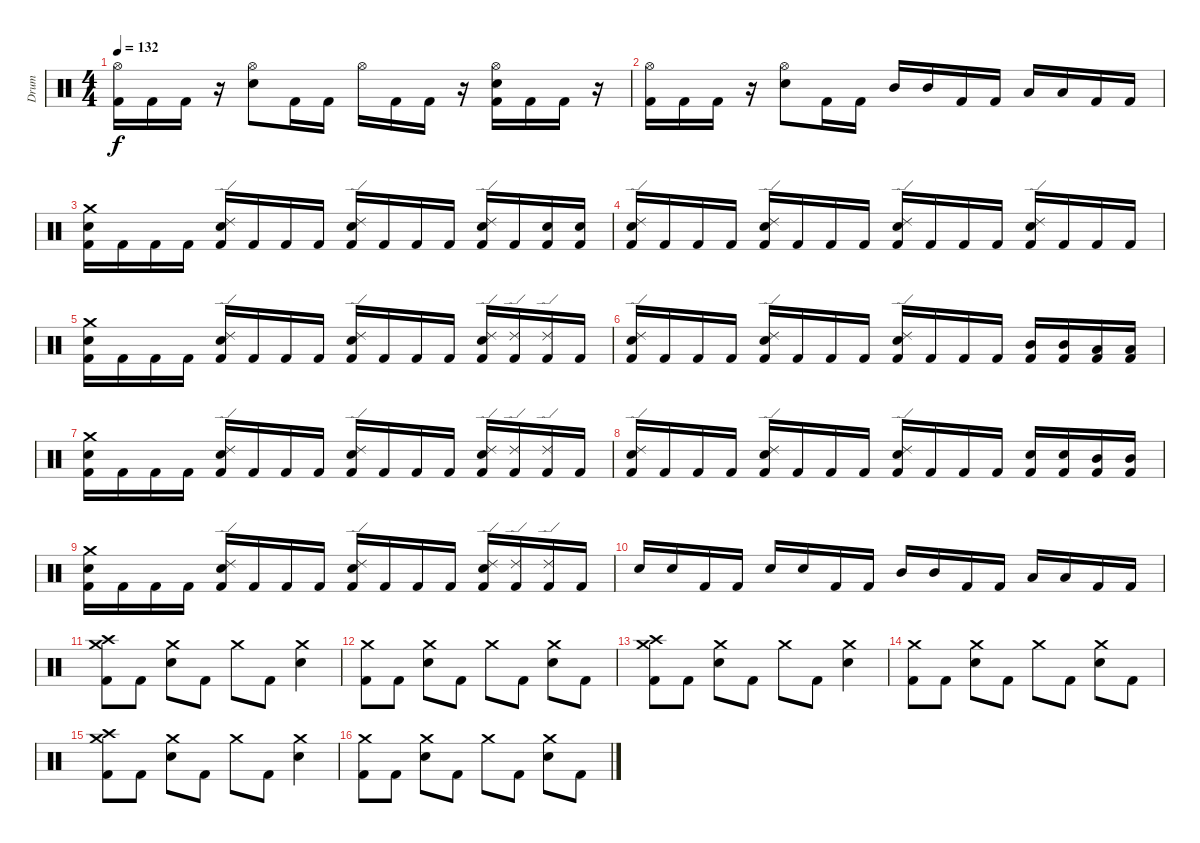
\track ("Drum" "Drum") {instrument percussion}
\staff {score}
\articulation defaults
\ts (4 4)
\tempo 132
\clef neutral
\ks c
("Hi-Hat (open)" "Kick (hit) 2").16{dy f} "Kick (hit) 2".16 "Kick (hit) 2".16 r.16 ("Hi-Hat (open)" "Snare (hit) 2").8 "Kick (hit) 2".16 "Kick (hit) 2".16 "Hi-Hat (open)".16 "Kick (hit) 2".16 "Kick (hit) 2".16 r.16 ("Hi-Hat (open)" "Snare (hit) 2" "Kick (hit) 2").16 "Kick (hit) 2".16 "Kick (hit) 2".16 r.16 |
("Hi-Hat (open)" "Kick (hit) 2").16 "Kick (hit) 2".16 "Kick (hit) 2".16 r.16 ("Hi-Hat (open)" "Snare (hit) 2").8 "Kick (hit) 2".16 "Kick (hit) 2".16 "Mid Tom (hit)".16 "Mid Tom (hit)".16 "Kick (hit) 2".16 "Kick (hit) 2".16 "Low Tom (hit)".16 "Low Tom (hit)".16 "Kick (hit) 2".16 "Kick (hit) 2".16 |
("Crash medium (hit)" "Snare (hit) 2" "Kick (hit) 2").16 "Kick (hit) 2".16 "Kick (hit) 2".16 "Kick (hit) 2".16 ("Ride (edge) 2" "Snare (hit) 2" "Kick (hit) 2").16 "Kick (hit) 2".16 "Kick (hit) 2".16 "Kick (hit) 2".16 ("Ride (edge) 2" "Snare (hit) 2" "Kick (hit) 2").16 "Kick (hit) 2".16 "Kick (hit) 2".16 "Kick (hit) 2".16 ("Ride (edge) 2" "Snare (hit) 2" "Kick (hit) 2").16 "Kick (hit) 2".16 ("Snare (hit) 2" "Kick (hit) 2").16 ("Snare (hit) 2" "Kick (hit) 2").16 |
("Ride (edge) 2" "Snare (hit) 2" "Kick (hit) 2").16 "Kick (hit) 2".16 "Kick (hit) 2".16 "Kick (hit) 2".16 ("Ride (edge) 2" "Snare (hit) 2" "Kick (hit) 2").16 "Kick (hit) 2".16 "Kick (hit) 2".16 "Kick (hit) 2".16 ("Ride (edge) 2" "Snare (hit) 2" "Kick (hit) 2").16 "Kick (hit) 2".16 "Kick (hit) 2".16 "Kick (hit) 2".16 ("Ride (edge) 2" "Snare (hit) 2" "Kick (hit) 2").16 "Kick (hit) 2".16 "Kick (hit) 2".16 "Kick (hit) 2".16 |
("Crash medium (hit)" "Snare (hit) 2" "Kick (hit) 2").16 "Kick (hit) 2".16 "Kick (hit) 2".16 "Kick (hit) 2".16 ("Ride (edge) 2" "Snare (hit) 2" "Kick (hit) 2").16 "Kick (hit) 2".16 "Kick (hit) 2".16 "Kick (hit) 2".16 ("Ride (edge) 2" "Snare (hit) 2" "Kick (hit) 2").16 "Kick (hit) 2".16 "Kick (hit) 2".16 "Kick (hit) 2".16 ("Ride (edge) 2" "Snare (hit) 2" "Kick (hit) 2").16 ("Ride (edge) 2" "Kick (hit) 2").16 ("Ride (edge) 2" "Kick (hit) 2").16 "Kick (hit) 2".16 |
("Ride (edge) 2" "Snare (hit) 2" "Kick (hit) 2").16 "Kick (hit) 2".16 "Kick (hit) 2".16 "Kick (hit) 2".16 ("Ride (edge) 2" "Snare (hit) 2" "Kick (hit) 2").16 "Kick (hit) 2".16 "Kick (hit) 2".16 "Kick (hit) 2".16 ("Ride (edge) 2" "Snare (hit) 2" "Kick (hit) 2").16 "Kick (hit) 2".16 "Kick (hit) 2".16 "Kick (hit) 2".16 ("Mid Tom (hit)" "Kick (hit) 2").16 ("Mid Tom (hit)" "Kick (hit) 2").16 ("Low Tom (hit)" "Kick (hit) 2").16 ("Low Tom (hit)" "Kick (hit) 2").16 |
("Crash medium (hit)" "Snare (hit) 2" "Kick (hit) 2").16 "Kick (hit) 2".16 "Kick (hit) 2".16 "Kick (hit) 2".16 ("Ride (edge) 2" "Snare (hit) 2" "Kick (hit) 2").16 "Kick (hit) 2".16 "Kick (hit) 2".16 "Kick (hit) 2".16 ("Ride (edge) 2" "Snare (hit) 2" "Kick (hit) 2").16 "Kick (hit) 2".16 "Kick (hit) 2".16 "Kick (hit) 2".16 ("Ride (edge) 2" "Snare (hit) 2" "Kick (hit) 2").16 ("Ride (edge) 2" "Kick (hit) 2").16 ("Ride (edge) 2" "Kick (hit) 2").16 "Kick (hit) 2".16 |
("Ride (edge) 2" "Snare (hit) 2" "Kick (hit) 2").16 "Kick (hit) 2".16 "Kick (hit) 2".16 "Kick (hit) 2".16 ("Ride (edge) 2" "Snare (hit) 2" "Kick (hit) 2").16 "Kick (hit) 2".16 "Kick (hit) 2".16 "Kick (hit) 2".16 ("Ride (edge) 2" "Snare (hit) 2" "Kick (hit) 2").16 "Kick (hit) 2".16 "Kick (hit) 2".16 "Kick (hit) 2".16 ("Snare (hit) 2" "Kick (hit) 2").16 ("Snare (hit) 2" "Kick (hit) 2").16 ("Mid Tom (hit)" "Kick (hit) 2").16 ("Mid Tom (hit)" "Kick (hit) 2").16 |
("Crash medium (hit)" "Snare (hit) 2" "Kick (hit) 2").16 "Kick (hit) 2".16 "Kick (hit) 2".16 "Kick (hit) 2".16 ("Ride (edge) 2" "Snare (hit) 2" "Kick (hit) 2").16 "Kick (hit) 2".16 "Kick (hit) 2".16 "Kick (hit) 2".16 ("Ride (edge) 2" "Snare (hit) 2" "Kick (hit) 2").16 "Kick (hit) 2".16 "Kick (hit) 2".16 "Kick (hit) 2".16 ("Ride (edge) 2" "Snare (hit) 2" "Kick (hit) 2").16 ("Ride (edge) 2" "Kick (hit) 2").16 ("Ride (edge) 2" "Kick (hit) 2").16 "Kick (hit) 2".16 |
"Snare (hit) 2".16 "Snare (hit) 2".16 "Kick (hit) 2".16 "Kick (hit) 2".16 "Snare (hit) 2".16 "Snare (hit) 2".16 "Kick (hit) 2".16 "Kick (hit) 2".16 "Mid Tom (hit)".16 "Mid Tom (hit)".16 "Kick (hit) 2".16 "Kick (hit) 2".16 "Low Tom (hit)".16 "Low Tom (hit)".16 "Kick (hit) 2".16 "Kick (hit) 2".16 |
("Crash medium (hit)" "Crash high (hit)" "Kick (hit) 2").8 "Kick (hit) 2".8 ("Crash medium (hit)" "Snare (hit) 2").8 "Kick (hit) 2".8 "Crash medium (hit)".8 "Kick (hit) 2".8 ("Crash medium (hit)" "Snare (hit) 2").4 |
("Crash medium (hit)" "Kick (hit) 2").8 "Kick (hit) 2".8 ("Crash medium (hit)" "Snare (hit) 2").8 "Kick (hit) 2".8 "Crash medium (hit)".8 "Kick (hit) 2".8 ("Crash medium (hit)" "Snare (hit) 2").8 "Kick (hit) 2".8 |
("Crash medium (hit)" "Crash high (hit)" "Kick (hit) 2").8 "Kick (hit) 2".8 ("Crash medium (hit)" "Snare (hit) 2").8 "Kick (hit) 2".8 "Crash medium (hit)".8 "Kick (hit) 2".8 ("Crash medium (hit)" "Snare (hit) 2").4 |
("Crash medium (hit)" "Kick (hit) 2").8 "Kick (hit) 2".8 ("Crash medium (hit)" "Snare (hit) 2").8 "Kick (hit) 2".8 "Crash medium (hit)".8 "Kick (hit) 2".8 ("Crash medium (hit)" "Snare (hit) 2").8 "Kick (hit) 2".8 |
("Crash medium (hit)" "Crash high (hit)" "Kick (hit) 2").8 "Kick (hit) 2".8 ("Crash medium (hit)" "Snare (hit) 2").8 "Kick (hit) 2".8 "Crash medium (hit)".8 "Kick (hit) 2".8 ("Crash medium (hit)" "Snare (hit) 2").4 |
("Crash medium (hit)" "Kick (hit) 2").8 "Kick (hit) 2".8 ("Crash medium (hit)" "Snare (hit) 2").8 "Kick (hit) 2".8 "Crash medium (hit)".8 "Kick (hit) 2".8 ("Crash medium (hit)" "Snare (hit) 2").8 "Kick (hit) 2".8
